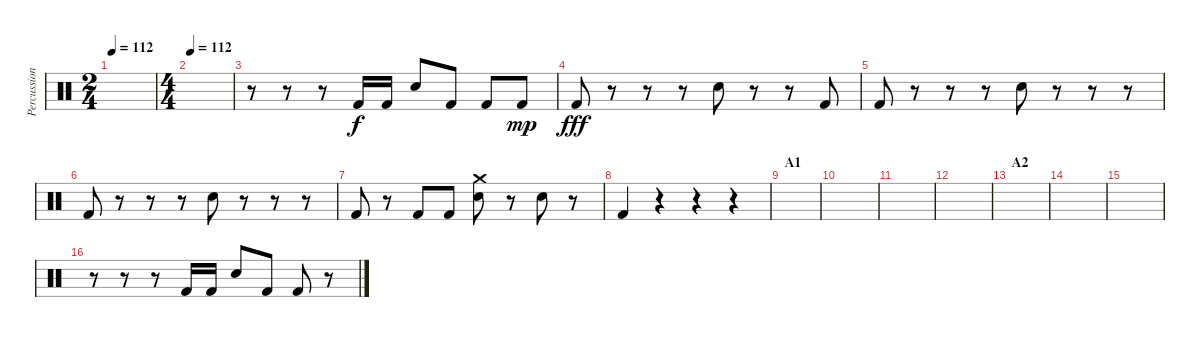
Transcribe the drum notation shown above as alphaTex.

\track ("Percussion" "Percussion") {instrument percussion}
\staff {score}
\articulation defaults
\ts (2 4)
\tempo 112
\tempo 121
\tempo 112
\clef neutral
\ks c
|
\ts (4 4)
\tempo 112
|
r.8 r.8 r.8 "Kick (hit) 2".16 "Kick (hit) 2".16 "Electric Snare (hit)".8 "Kick (hit) 2".8 "Kick (hit) 2".8 "Kick (hit) 2".8{dy mp} |
"Kick (hit) 2".8{dy fff} r.8 r.8 r.8 "Electric Snare (hit)".8 r.8 r.8 "Kick (hit) 2".8 |
"Kick (hit) 2".8 r.8 r.8 r.8 "Electric Snare (hit)".8 r.8 r.8 r.8 |
"Kick (hit) 2".8 r.8 r.8 r.8 "Electric Snare (hit)".8 r.8 r.8 r.8 |
"Kick (hit) 2".8 r.8 "Kick (hit) 2".8 "Kick (hit) 2".8 ("Electric Snare (hit)" "Crash medium (hit)").8 r.8 "Electric Snare (hit)".8 r.8 |
"Kick (hit) 2".4 r.4 r.4 r.4 |
\section ("" "A1")
|
|
|
|
\section ("" "A2")
|
|
|
r.8 r.8 r.8 "Kick (hit) 2".16 "Kick (hit) 2".16 "Electric Snare (hit)".8 "Kick (hit) 2".8 "Kick (hit) 2".8 r.8
